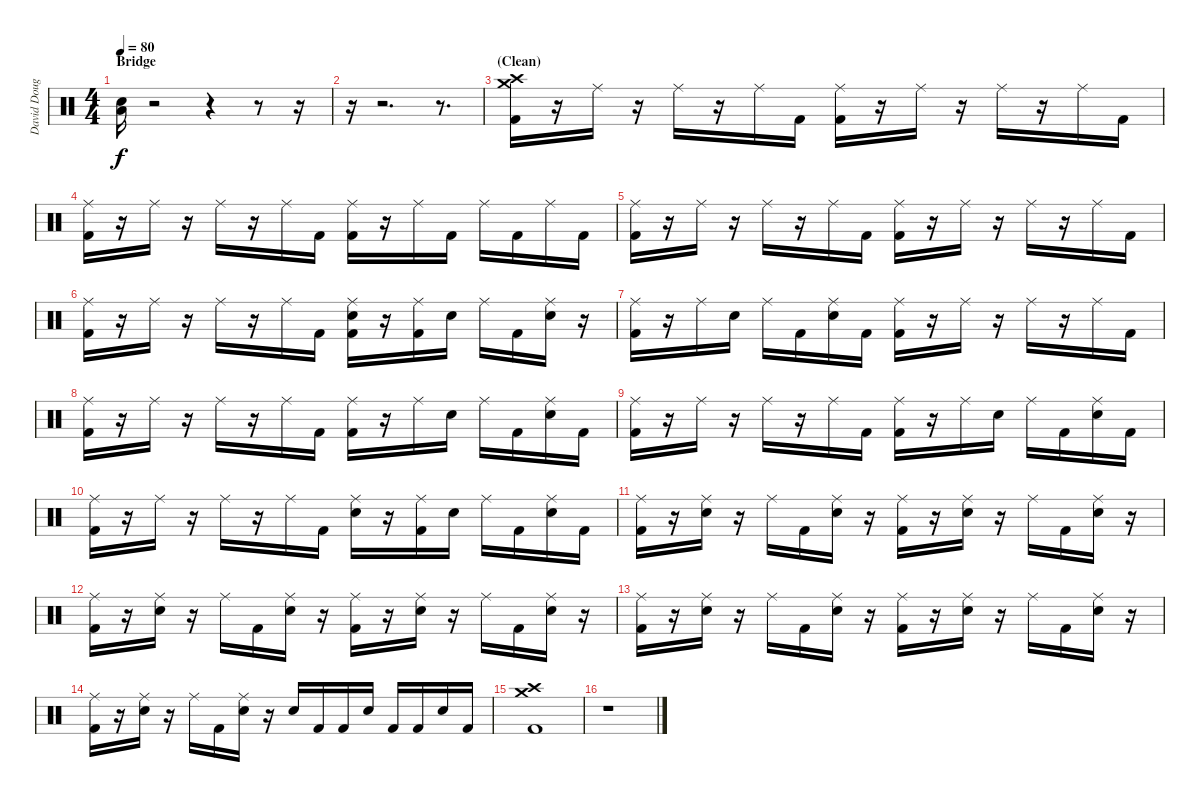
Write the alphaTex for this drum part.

\track ("David Douglas" "David Doug") {instrument percussion}
\staff {score}
\articulation defaults
\ts (4 4)
\section ("" "Bridge")
\tempo 80
\clef neutral
\ks c
("Low Tom (hit)" "Electric Snare (hit)").16{dy f} r.2 r.4 r.8 r.16 |
r.16 r.2{d} r.8{d} |
\section ("" "(Clean)")
("Crash medium (hit)" "Crash high (hit)" "Kick (hit) 2").16 r.16 "Ride (middle)".16 r.16 "Ride (middle)".16 r.16 "Ride (middle)".16 "Kick (hit) 2".16 ("Ride (middle)" "Kick (hit) 2").16 r.16 "Ride (middle)".16 r.16 "Ride (middle)".16 r.16 "Ride (middle)".16 "Kick (hit) 2".16 |
("Ride (middle)" "Kick (hit) 2").16 r.16 "Ride (middle)".16 r.16 "Ride (middle)".16 r.16 "Ride (middle)".16 "Kick (hit) 2".16 ("Ride (middle)" "Kick (hit) 2").16 r.16 "Ride (middle)".16 "Kick (hit) 2".16 "Ride (middle)".16 "Kick (hit) 2".16 "Ride (middle)".16 "Kick (hit) 2".16 |
("Ride (middle)" "Kick (hit) 2").16 r.16 "Ride (middle)".16 r.16 "Ride (middle)".16 r.16 "Ride (middle)".16 "Kick (hit) 2".16 ("Ride (middle)" "Kick (hit) 2").16 r.16 "Ride (middle)".16 r.16 "Ride (middle)".16 r.16 "Ride (middle)".16 "Kick (hit) 2".16 |
("Ride (middle)" "Kick (hit) 2").16 r.16 "Ride (middle)".16 r.16 "Ride (middle)".16 r.16 "Ride (middle)".16 "Kick (hit) 2".16 ("Ride (middle)" "Electric Snare (hit)" "Kick (hit) 2").16 r.16 ("Ride (middle)" "Kick (hit) 2").16 "Electric Snare (hit)".16 "Ride (middle)".16 "Kick (hit) 2".16 ("Ride (middle)" "Electric Snare (hit)").16 r.16 |
("Ride (middle)" "Kick (hit) 2").16 r.16 "Ride (middle)".16 "Electric Snare (hit)".16 "Ride (middle)".16 "Kick (hit) 2".16 ("Ride (middle)" "Electric Snare (hit)").16 "Kick (hit) 2".16 ("Ride (middle)" "Kick (hit) 2").16 r.16 "Ride (middle)".16 r.16 "Ride (middle)".16 r.16 "Ride (middle)".16 "Kick (hit) 2".16 |
("Ride (middle)" "Kick (hit) 2").16 r.16 "Ride (middle)".16 r.16 "Ride (middle)".16 r.16 "Ride (middle)".16 "Kick (hit) 2".16 ("Ride (middle)" "Kick (hit) 2").16 r.16 "Ride (middle)".16 "Electric Snare (hit)".16 "Ride (middle)".16 "Kick (hit) 2".16 ("Ride (middle)" "Electric Snare (hit)").16 "Kick (hit) 2".16 |
("Ride (middle)" "Kick (hit) 2").16 r.16 "Ride (middle)".16 r.16 "Ride (middle)".16 r.16 "Ride (middle)".16 "Kick (hit) 2".16 ("Ride (middle)" "Kick (hit) 2").16 r.16 "Ride (middle)".16 "Electric Snare (hit)".16 "Ride (middle)".16 "Kick (hit) 2".16 ("Ride (middle)" "Electric Snare (hit)").16 "Kick (hit) 2".16 |
("Ride (middle)" "Kick (hit) 2").16 r.16 "Ride (middle)".16 r.16 "Ride (middle)".16 r.16 "Ride (middle)".16 "Kick (hit) 2".16 ("Ride (middle)" "Electric Snare (hit)").16 r.16 ("Ride (middle)" "Kick (hit) 2").16 "Electric Snare (hit)".16 "Ride (middle)".16 "Kick (hit) 2".16 ("Ride (middle)" "Electric Snare (hit)").16 "Kick (hit) 2".16 |
("Ride (middle)" "Kick (hit) 2").16 r.16 ("Ride (middle)" "Electric Snare (hit)").16 r.16 "Ride (middle)".16 "Kick (hit) 2".16 ("Ride (middle)" "Electric Snare (hit)").16 r.16 ("Ride (middle)" "Kick (hit) 2").16 r.16 ("Ride (middle)" "Electric Snare (hit)").16 r.16 "Ride (middle)".16 "Kick (hit) 2".16 ("Ride (middle)" "Electric Snare (hit)").16 r.16 |
("Ride (middle)" "Kick (hit) 2").16 r.16 ("Ride (middle)" "Electric Snare (hit)").16 r.16 "Ride (middle)".16 "Kick (hit) 2".16 ("Ride (middle)" "Electric Snare (hit)").16 r.16 ("Ride (middle)" "Kick (hit) 2").16 r.16 ("Ride (middle)" "Electric Snare (hit)").16 r.16 "Ride (middle)".16 "Kick (hit) 2".16 ("Ride (middle)" "Electric Snare (hit)").16 r.16 |
("Ride (middle)" "Kick (hit) 2").16 r.16 ("Ride (middle)" "Electric Snare (hit)").16 r.16 "Ride (middle)".16 "Kick (hit) 2".16 ("Ride (middle)" "Electric Snare (hit)").16 r.16 ("Ride (middle)" "Kick (hit) 2").16 r.16 ("Ride (middle)" "Electric Snare (hit)").16 r.16 "Ride (middle)".16 "Kick (hit) 2".16 ("Ride (middle)" "Electric Snare (hit)").16 r.16 |
("Ride (middle)" "Kick (hit) 2").16 r.16 ("Ride (middle)" "Electric Snare (hit)").16 r.16 "Ride (middle)".16 "Kick (hit) 2".16 ("Ride (middle)" "Electric Snare (hit)").16 r.16 "Electric Snare (hit)".16 "Kick (hit) 2".16 "Kick (hit) 2".16 "Electric Snare (hit)".16 "Kick (hit) 2".16 "Kick (hit) 2".16 "Electric Snare (hit)".16 "Kick (hit) 2".16 |
("Crash high (hit)" "Crash medium (hit)" "Kick (hit) 2").1 |
r.1
